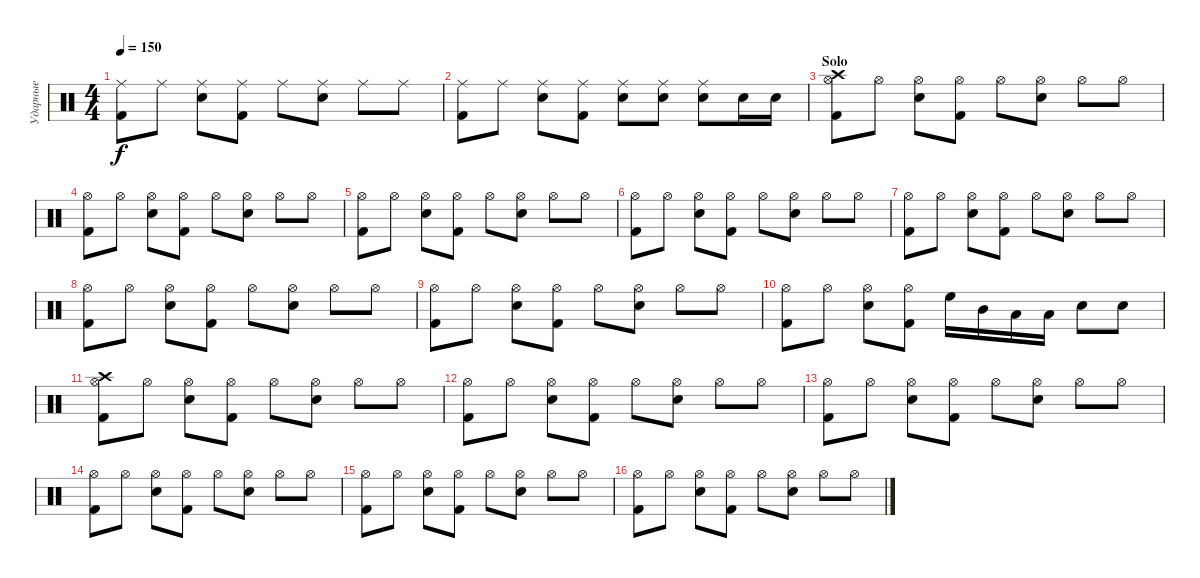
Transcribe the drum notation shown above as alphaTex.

\track ("Ударные" "Ударные") {instrument percussion}
\staff {score}
\articulation defaults
\ts (4 4)
\tempo 150
\clef neutral
\ks c
("Ride (middle)" "Kick (hit) 2").8{dy f} "Ride (middle)".8 ("Ride (middle)" "Snare (hit) 2").8 ("Ride (middle)" "Kick (hit) 2").8 "Ride (middle)".8 ("Ride (middle)" "Snare (hit) 2").8 "Ride (middle)".8 "Ride (middle)".8 |
("Ride (middle)" "Kick (hit) 2").8 "Ride (middle)".8 ("Ride (middle)" "Snare (hit) 2").8 ("Ride (middle)" "Kick (hit) 2").8 ("Ride (middle)" "Snare (hit) 2").8 ("Ride (middle)" "Snare (hit) 2").8 ("Ride (middle)" "Snare (hit) 2").8 "Snare (hit) 2".16 "Snare (hit) 2".16 |
\section ("" "Solo")
("Hi-Hat (open)" "Crash high (hit)" "Kick (hit) 2").8 "Hi-Hat (open)".8 ("Hi-Hat (open)" "Snare (hit) 2").8 ("Hi-Hat (open)" "Kick (hit) 2").8 "Hi-Hat (open)".8 ("Hi-Hat (open)" "Snare (hit) 2").8 "Hi-Hat (open)".8 "Hi-Hat (open)".8 |
("Hi-Hat (open)" "Kick (hit) 2").8 "Hi-Hat (open)".8 ("Hi-Hat (open)" "Snare (hit) 2").8 ("Hi-Hat (open)" "Kick (hit) 2").8 "Hi-Hat (open)".8 ("Hi-Hat (open)" "Snare (hit) 2").8 "Hi-Hat (open)".8 "Hi-Hat (open)".8 |
("Hi-Hat (open)" "Kick (hit) 2").8 "Hi-Hat (open)".8 ("Hi-Hat (open)" "Snare (hit) 2").8 ("Hi-Hat (open)" "Kick (hit) 2").8 "Hi-Hat (open)".8 ("Hi-Hat (open)" "Snare (hit) 2").8 "Hi-Hat (open)".8 "Hi-Hat (open)".8 |
("Hi-Hat (open)" "Kick (hit) 2").8 "Hi-Hat (open)".8 ("Hi-Hat (open)" "Snare (hit) 2").8 ("Hi-Hat (open)" "Kick (hit) 2").8 "Hi-Hat (open)".8 ("Hi-Hat (open)" "Snare (hit) 2").8 "Hi-Hat (open)".8 "Hi-Hat (open)".8 |
("Hi-Hat (open)" "Kick (hit) 2").8 "Hi-Hat (open)".8 ("Hi-Hat (open)" "Snare (hit) 2").8 ("Hi-Hat (open)" "Kick (hit) 2").8 "Hi-Hat (open)".8 ("Hi-Hat (open)" "Snare (hit) 2").8 "Hi-Hat (open)".8 "Hi-Hat (open)".8 |
("Hi-Hat (open)" "Kick (hit) 2").8 "Hi-Hat (open)".8 ("Hi-Hat (open)" "Snare (hit) 2").8 ("Hi-Hat (open)" "Kick (hit) 2").8 "Hi-Hat (open)".8 ("Hi-Hat (open)" "Snare (hit) 2").8 "Hi-Hat (open)".8 "Hi-Hat (open)".8 |
("Hi-Hat (open)" "Kick (hit) 2").8 "Hi-Hat (open)".8 ("Hi-Hat (open)" "Snare (hit) 2").8 ("Hi-Hat (open)" "Kick (hit) 2").8 "Hi-Hat (open)".8 ("Hi-Hat (open)" "Snare (hit) 2").8 "Hi-Hat (open)".8 "Hi-Hat (open)".8 |
("Hi-Hat (open)" "Kick (hit) 2").8 "Hi-Hat (open)".8 ("Hi-Hat (open)" "Snare (hit) 2").8 ("Hi-Hat (open)" "Kick (hit) 2").8 "High Floor Tom (hit)".16 "Mid Tom (hit)".16 "Low Tom (hit)".16 "Low Floor Tom (hit)".16 "Snare (hit) 2".8 "Snare (hit) 2".8 |
("Hi-Hat (open)" "Crash high (hit)" "Kick (hit) 2").8 "Hi-Hat (open)".8 ("Hi-Hat (open)" "Snare (hit) 2").8 ("Hi-Hat (open)" "Kick (hit) 2").8 "Hi-Hat (open)".8 ("Hi-Hat (open)" "Snare (hit) 2").8 "Hi-Hat (open)".8 "Hi-Hat (open)".8 |
("Hi-Hat (open)" "Kick (hit) 2").8 "Hi-Hat (open)".8 ("Hi-Hat (open)" "Snare (hit) 2").8 ("Hi-Hat (open)" "Kick (hit) 2").8 "Hi-Hat (open)".8 ("Hi-Hat (open)" "Snare (hit) 2").8 "Hi-Hat (open)".8 "Hi-Hat (open)".8 |
("Hi-Hat (open)" "Kick (hit) 2").8 "Hi-Hat (open)".8 ("Hi-Hat (open)" "Snare (hit) 2").8 ("Hi-Hat (open)" "Kick (hit) 2").8 "Hi-Hat (open)".8 ("Hi-Hat (open)" "Snare (hit) 2").8 "Hi-Hat (open)".8 "Hi-Hat (open)".8 |
("Hi-Hat (open)" "Kick (hit) 2").8 "Hi-Hat (open)".8 ("Hi-Hat (open)" "Snare (hit) 2").8 ("Hi-Hat (open)" "Kick (hit) 2").8 "Hi-Hat (open)".8 ("Hi-Hat (open)" "Snare (hit) 2").8 "Hi-Hat (open)".8 "Hi-Hat (open)".8 |
("Hi-Hat (open)" "Kick (hit) 2").8 "Hi-Hat (open)".8 ("Hi-Hat (open)" "Snare (hit) 2").8 ("Hi-Hat (open)" "Kick (hit) 2").8 "Hi-Hat (open)".8 ("Hi-Hat (open)" "Snare (hit) 2").8 "Hi-Hat (open)".8 "Hi-Hat (open)".8 |
("Hi-Hat (open)" "Kick (hit) 2").8 "Hi-Hat (open)".8 ("Hi-Hat (open)" "Snare (hit) 2").8 ("Hi-Hat (open)" "Kick (hit) 2").8 "Hi-Hat (open)".8 ("Hi-Hat (open)" "Snare (hit) 2").8 "Hi-Hat (open)".8 "Hi-Hat (open)".8
